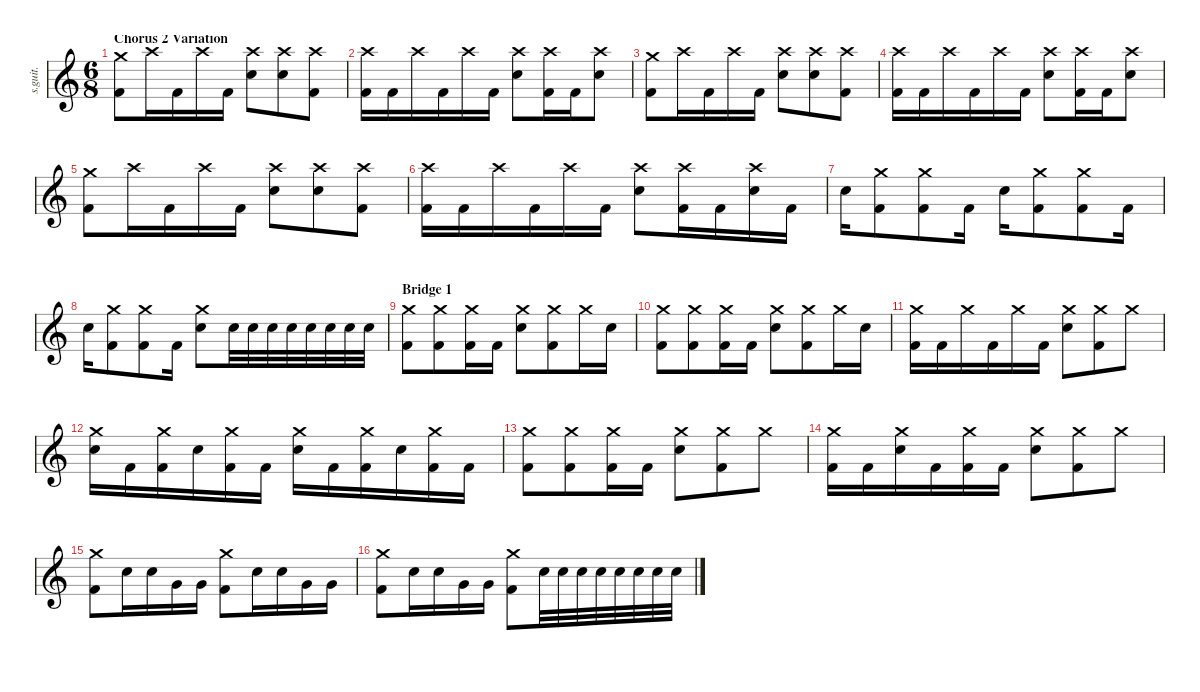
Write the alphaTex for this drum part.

\defaultSystemsLayout 4
\hideDynamics
\bracketExtendMode nobrackets
\track ("Shannon (Drums)" "s.guit.") {instrument percussion}
\staff {score}
\articulation defaults
\ts (6 8)
\section ("" "Chorus 2 Variation")
\tempo (94 hide)
\clef g2
\ks c
("Crash medium (hit)" "Kick (hit) 2").8{lyrics (0 "") lyrics (1 "") lyrics (2 "") lyrics (3 "") lyrics (4 "") dy f} "Crash high (hit)".16{lyrics (0 "") lyrics (1 "") lyrics (2 "") lyrics (3 "") lyrics (4 "")} "Kick (hit) 2".16{lyrics (0 "") lyrics (1 "") lyrics (2 "") lyrics (3 "") lyrics (4 "")} "Crash high (hit)".16{lyrics (0 "") lyrics (1 "") lyrics (2 "") lyrics (3 "") lyrics (4 "")} "Kick (hit) 2".16{lyrics (0 "") lyrics (1 "") lyrics (2 "") lyrics (3 "") lyrics (4 "")} ("Crash high (hit)" "Electric Snare (hit)").8{lyrics (0 "") lyrics (1 "") lyrics (2 "") lyrics (3 "") lyrics (4 "")} ("Crash high (hit)" "Electric Snare (hit)").8{lyrics (0 "") lyrics (1 "") lyrics (2 "") lyrics (3 "") lyrics (4 "")} ("Crash high (hit)" "Kick (hit) 2").8{lyrics (0 "") lyrics (1 "") lyrics (2 "") lyrics (3 "") lyrics (4 "")} |
("Crash high (hit)" "Kick (hit) 2").16{lyrics (0 "") lyrics (1 "") lyrics (2 "") lyrics (3 "") lyrics (4 "")} "Kick (hit) 2".16{lyrics (0 "") lyrics (1 "") lyrics (2 "") lyrics (3 "") lyrics (4 "")} "Crash high (hit)".16{lyrics (0 "") lyrics (1 "") lyrics (2 "") lyrics (3 "") lyrics (4 "")} "Kick (hit) 2".16{lyrics (0 "") lyrics (1 "") lyrics (2 "") lyrics (3 "") lyrics (4 "")} "Crash high (hit)".16{lyrics (0 "") lyrics (1 "") lyrics (2 "") lyrics (3 "") lyrics (4 "")} "Kick (hit) 2".16{lyrics (0 "") lyrics (1 "") lyrics (2 "") lyrics (3 "") lyrics (4 "")} ("Crash high (hit)" "Electric Snare (hit)").8{lyrics (0 "") lyrics (1 "") lyrics (2 "") lyrics (3 "") lyrics (4 "")} ("Crash high (hit)" "Kick (hit) 2").16{lyrics (0 "") lyrics (1 "") lyrics (2 "") lyrics (3 "") lyrics (4 "")} "Kick (hit) 2".16{lyrics (0 "") lyrics (1 "") lyrics (2 "") lyrics (3 "") lyrics (4 "")} ("Crash high (hit)" "Electric Snare (hit)").8{lyrics (0 "") lyrics (1 "") lyrics (2 "") lyrics (3 "") lyrics (4 "")} |
("Crash medium (hit)" "Kick (hit) 2").8{lyrics (0 "") lyrics (1 "") lyrics (2 "") lyrics (3 "") lyrics (4 "")} "Crash high (hit)".16{lyrics (0 "") lyrics (1 "") lyrics (2 "") lyrics (3 "") lyrics (4 "")} "Kick (hit) 2".16{lyrics (0 "") lyrics (1 "") lyrics (2 "") lyrics (3 "") lyrics (4 "")} "Crash high (hit)".16{lyrics (0 "") lyrics (1 "") lyrics (2 "") lyrics (3 "") lyrics (4 "")} "Kick (hit) 2".16{lyrics (0 "") lyrics (1 "") lyrics (2 "") lyrics (3 "") lyrics (4 "")} ("Crash high (hit)" "Electric Snare (hit)").8{lyrics (0 "") lyrics (1 "") lyrics (2 "") lyrics (3 "") lyrics (4 "")} ("Crash high (hit)" "Electric Snare (hit)").8{lyrics (0 "") lyrics (1 "") lyrics (2 "") lyrics (3 "") lyrics (4 "")} ("Crash high (hit)" "Kick (hit) 2").8{lyrics (0 "") lyrics (1 "") lyrics (2 "") lyrics (3 "") lyrics (4 "")} |
("Crash high (hit)" "Kick (hit) 2").16{lyrics (0 "") lyrics (1 "") lyrics (2 "") lyrics (3 "") lyrics (4 "")} "Kick (hit) 2".16{lyrics (0 "") lyrics (1 "") lyrics (2 "") lyrics (3 "") lyrics (4 "")} "Crash high (hit)".16{lyrics (0 "") lyrics (1 "") lyrics (2 "") lyrics (3 "") lyrics (4 "")} "Kick (hit) 2".16{lyrics (0 "") lyrics (1 "") lyrics (2 "") lyrics (3 "") lyrics (4 "")} "Crash high (hit)".16{lyrics (0 "") lyrics (1 "") lyrics (2 "") lyrics (3 "") lyrics (4 "")} "Kick (hit) 2".16{lyrics (0 "") lyrics (1 "") lyrics (2 "") lyrics (3 "") lyrics (4 "")} ("Crash high (hit)" "Electric Snare (hit)").8{lyrics (0 "") lyrics (1 "") lyrics (2 "") lyrics (3 "") lyrics (4 "")} ("Crash high (hit)" "Kick (hit) 2").16{lyrics (0 "") lyrics (1 "") lyrics (2 "") lyrics (3 "") lyrics (4 "")} "Kick (hit) 2".16{lyrics (0 "") lyrics (1 "") lyrics (2 "") lyrics (3 "") lyrics (4 "")} ("Crash high (hit)" "Electric Snare (hit)").8{lyrics (0 "") lyrics (1 "") lyrics (2 "") lyrics (3 "") lyrics (4 "")} |
("Crash medium (hit)" "Kick (hit) 2").8{lyrics (0 "") lyrics (1 "") lyrics (2 "") lyrics (3 "") lyrics (4 "")} "Crash high (hit)".16{lyrics (0 "") lyrics (1 "") lyrics (2 "") lyrics (3 "") lyrics (4 "")} "Kick (hit) 2".16{lyrics (0 "") lyrics (1 "") lyrics (2 "") lyrics (3 "") lyrics (4 "")} "Crash high (hit)".16{lyrics (0 "") lyrics (1 "") lyrics (2 "") lyrics (3 "") lyrics (4 "")} "Kick (hit) 2".16{lyrics (0 "") lyrics (1 "") lyrics (2 "") lyrics (3 "") lyrics (4 "")} ("Crash high (hit)" "Electric Snare (hit)").8{lyrics (0 "") lyrics (1 "") lyrics (2 "") lyrics (3 "") lyrics (4 "")} ("Crash high (hit)" "Electric Snare (hit)").8{lyrics (0 "") lyrics (1 "") lyrics (2 "") lyrics (3 "") lyrics (4 "")} ("Crash high (hit)" "Kick (hit) 2").8{lyrics (0 "") lyrics (1 "") lyrics (2 "") lyrics (3 "") lyrics (4 "")} |
("Crash high (hit)" "Kick (hit) 2").16{lyrics (0 "") lyrics (1 "") lyrics (2 "") lyrics (3 "") lyrics (4 "")} "Kick (hit) 2".16{lyrics (0 "") lyrics (1 "") lyrics (2 "") lyrics (3 "") lyrics (4 "")} "Crash high (hit)".16{lyrics (0 "") lyrics (1 "") lyrics (2 "") lyrics (3 "") lyrics (4 "")} "Kick (hit) 2".16{lyrics (0 "") lyrics (1 "") lyrics (2 "") lyrics (3 "") lyrics (4 "")} "Crash high (hit)".16{lyrics (0 "") lyrics (1 "") lyrics (2 "") lyrics (3 "") lyrics (4 "")} "Kick (hit) 2".16{lyrics (0 "") lyrics (1 "") lyrics (2 "") lyrics (3 "") lyrics (4 "")} ("Crash high (hit)" "Electric Snare (hit)").8{lyrics (0 "") lyrics (1 "") lyrics (2 "") lyrics (3 "") lyrics (4 "")} ("Crash high (hit)" "Kick (hit) 2").16{lyrics (0 "") lyrics (1 "") lyrics (2 "") lyrics (3 "") lyrics (4 "")} "Kick (hit) 2".16{lyrics (0 "") lyrics (1 "") lyrics (2 "") lyrics (3 "") lyrics (4 "")} ("Crash high (hit)" "Electric Snare (hit)").16{lyrics (0 "") lyrics (1 "") lyrics (2 "") lyrics (3 "") lyrics (4 "")} "Kick (hit) 2".16{lyrics (0 "") lyrics (1 "") lyrics (2 "") lyrics (3 "") lyrics (4 "")} |
"Electric Snare (hit)".16{lyrics (0 "") lyrics (1 "") lyrics (2 "") lyrics (3 "") lyrics (4 "")} ("Crash medium (hit)" "Kick (hit) 2").8{lyrics (0 "") lyrics (1 "") lyrics (2 "") lyrics (3 "") lyrics (4 "")} ("Crash medium (hit)" "Kick (hit) 2").8{lyrics (0 "") lyrics (1 "") lyrics (2 "") lyrics (3 "") lyrics (4 "")} "Kick (hit) 2".16{lyrics (0 "") lyrics (1 "") lyrics (2 "") lyrics (3 "") lyrics (4 "")} "Electric Snare (hit)".16{lyrics (0 "") lyrics (1 "") lyrics (2 "") lyrics (3 "") lyrics (4 "")} ("Crash medium (hit)" "Kick (hit) 2").8{lyrics (0 "") lyrics (1 "") lyrics (2 "") lyrics (3 "") lyrics (4 "")} ("Crash medium (hit)" "Kick (hit) 2").8{lyrics (0 "") lyrics (1 "") lyrics (2 "") lyrics (3 "") lyrics (4 "")} "Kick (hit) 2".16{lyrics (0 "") lyrics (1 "") lyrics (2 "") lyrics (3 "") lyrics (4 "")} |
"Electric Snare (hit)".16{lyrics (0 "") lyrics (1 "") lyrics (2 "") lyrics (3 "") lyrics (4 "")} ("Crash medium (hit)" "Kick (hit) 2").8{lyrics (0 "") lyrics (1 "") lyrics (2 "") lyrics (3 "") lyrics (4 "")} ("Crash medium (hit)" "Kick (hit) 2").8{lyrics (0 "") lyrics (1 "") lyrics (2 "") lyrics (3 "") lyrics (4 "")} "Kick (hit) 2".16{lyrics (0 "") lyrics (1 "") lyrics (2 "") lyrics (3 "") lyrics (4 "")} ("Crash medium (hit)" "Electric Snare (hit)").8{lyrics (0 "") lyrics (1 "") lyrics (2 "") lyrics (3 "") lyrics (4 "")} "Electric Snare (hit)".32{lyrics (0 "") lyrics (1 "") lyrics (2 "") lyrics (3 "") lyrics (4 "")} "Electric Snare (hit)".32{lyrics (0 "") lyrics (1 "") lyrics (2 "") lyrics (3 "") lyrics (4 "")} "Electric Snare (hit)".32{lyrics (0 "") lyrics (1 "") lyrics (2 "") lyrics (3 "") lyrics (4 "")} "Electric Snare (hit)".32{lyrics (0 "") lyrics (1 "") lyrics (2 "") lyrics (3 "") lyrics (4 "")} "Electric Snare (hit)".32{lyrics (0 "") lyrics (1 "") lyrics (2 "") lyrics (3 "") lyrics (4 "")} "Electric Snare (hit)".32{lyrics (0 "") lyrics (1 "") lyrics (2 "") lyrics (3 "") lyrics (4 "")} "Electric Snare (hit)".32{lyrics (0 "") lyrics (1 "") lyrics (2 "") lyrics (3 "") lyrics (4 "")} "Electric Snare (hit)".32{lyrics (0 "") lyrics (1 "") lyrics (2 "") lyrics (3 "") lyrics (4 "")} |
\section ("" "Bridge 1")
("Crash medium (hit)" "Kick (hit) 2").8{lyrics (0 "") lyrics (1 "") lyrics (2 "") lyrics (3 "") lyrics (4 "")} ("Crash medium (hit)" "Kick (hit) 2").8{lyrics (0 "") lyrics (1 "") lyrics (2 "") lyrics (3 "") lyrics (4 "")} ("Crash medium (hit)" "Kick (hit) 2").16{lyrics (0 "") lyrics (1 "") lyrics (2 "") lyrics (3 "") lyrics (4 "")} "Kick (hit) 2".16{lyrics (0 "") lyrics (1 "") lyrics (2 "") lyrics (3 "") lyrics (4 "")} ("Crash medium (hit)" "Electric Snare (hit)").8{lyrics (0 "") lyrics (1 "") lyrics (2 "") lyrics (3 "") lyrics (4 "")} ("Crash medium (hit)" "Kick (hit) 2").8{lyrics (0 "") lyrics (1 "") lyrics (2 "") lyrics (3 "") lyrics (4 "")} "Crash medium (hit)".16{lyrics (0 "") lyrics (1 "") lyrics (2 "") lyrics (3 "") lyrics (4 "")} "Electric Snare (hit)".16{lyrics (0 "") lyrics (1 "") lyrics (2 "") lyrics (3 "") lyrics (4 "")} |
("Crash medium (hit)" "Kick (hit) 2").8{lyrics (0 "") lyrics (1 "") lyrics (2 "") lyrics (3 "") lyrics (4 "")} ("Crash medium (hit)" "Kick (hit) 2").8{lyrics (0 "") lyrics (1 "") lyrics (2 "") lyrics (3 "") lyrics (4 "")} ("Crash medium (hit)" "Kick (hit) 2").16{lyrics (0 "") lyrics (1 "") lyrics (2 "") lyrics (3 "") lyrics (4 "")} "Kick (hit) 2".16{lyrics (0 "") lyrics (1 "") lyrics (2 "") lyrics (3 "") lyrics (4 "")} ("Crash medium (hit)" "Electric Snare (hit)").8{lyrics (0 "") lyrics (1 "") lyrics (2 "") lyrics (3 "") lyrics (4 "")} ("Crash medium (hit)" "Kick (hit) 2").8{lyrics (0 "") lyrics (1 "") lyrics (2 "") lyrics (3 "") lyrics (4 "")} "Crash medium (hit)".16{lyrics (0 "") lyrics (1 "") lyrics (2 "") lyrics (3 "") lyrics (4 "")} "Electric Snare (hit)".16{lyrics (0 "") lyrics (1 "") lyrics (2 "") lyrics (3 "") lyrics (4 "")} |
("Crash medium (hit)" "Kick (hit) 2").16{lyrics (0 "") lyrics (1 "") lyrics (2 "") lyrics (3 "") lyrics (4 "")} "Kick (hit) 2".16{lyrics (0 "") lyrics (1 "") lyrics (2 "") lyrics (3 "") lyrics (4 "")} "Crash medium (hit)".16{lyrics (0 "") lyrics (1 "") lyrics (2 "") lyrics (3 "") lyrics (4 "")} "Kick (hit) 2".16{lyrics (0 "") lyrics (1 "") lyrics (2 "") lyrics (3 "") lyrics (4 "")} "Crash medium (hit)".16{lyrics (0 "") lyrics (1 "") lyrics (2 "") lyrics (3 "") lyrics (4 "")} "Kick (hit) 2".16{lyrics (0 "") lyrics (1 "") lyrics (2 "") lyrics (3 "") lyrics (4 "")} ("Crash medium (hit)" "Electric Snare (hit)").8{lyrics (0 "") lyrics (1 "") lyrics (2 "") lyrics (3 "") lyrics (4 "")} ("Crash medium (hit)" "Kick (hit) 2").8{lyrics (0 "") lyrics (1 "") lyrics (2 "") lyrics (3 "") lyrics (4 "")} "Crash medium (hit)".8{lyrics (0 "") lyrics (1 "") lyrics (2 "") lyrics (3 "") lyrics (4 "")} |
("Crash medium (hit)" "Electric Snare (hit)").16{lyrics (0 "") lyrics (1 "") lyrics (2 "") lyrics (3 "") lyrics (4 "")} "Kick (hit) 2".16{lyrics (0 "") lyrics (1 "") lyrics (2 "") lyrics (3 "") lyrics (4 "")} ("Crash medium (hit)" "Kick (hit) 2").16{lyrics (0 "") lyrics (1 "") lyrics (2 "") lyrics (3 "") lyrics (4 "")} "Electric Snare (hit)".16{lyrics (0 "") lyrics (1 "") lyrics (2 "") lyrics (3 "") lyrics (4 "")} ("Crash medium (hit)" "Kick (hit) 2").16{lyrics (0 "") lyrics (1 "") lyrics (2 "") lyrics (3 "") lyrics (4 "")} "Kick (hit) 2".16{lyrics (0 "") lyrics (1 "") lyrics (2 "") lyrics (3 "") lyrics (4 "")} ("Crash medium (hit)" "Electric Snare (hit)").16{lyrics (0 "") lyrics (1 "") lyrics (2 "") lyrics (3 "") lyrics (4 "")} "Kick (hit) 2".16{lyrics (0 "") lyrics (1 "") lyrics (2 "") lyrics (3 "") lyrics (4 "")} ("Crash medium (hit)" "Kick (hit) 2").16{lyrics (0 "") lyrics (1 "") lyrics (2 "") lyrics (3 "") lyrics (4 "")} "Electric Snare (hit)".16{lyrics (0 "") lyrics (1 "") lyrics (2 "") lyrics (3 "") lyrics (4 "")} ("Crash medium (hit)" "Kick (hit) 2").16{lyrics (0 "") lyrics (1 "") lyrics (2 "") lyrics (3 "") lyrics (4 "")} "Kick (hit) 2".16{lyrics (0 "") lyrics (1 "") lyrics (2 "") lyrics (3 "") lyrics (4 "")} |
("Crash medium (hit)" "Kick (hit) 2").8{lyrics (0 "") lyrics (1 "") lyrics (2 "") lyrics (3 "") lyrics (4 "")} ("Crash medium (hit)" "Kick (hit) 2").8{lyrics (0 "") lyrics (1 "") lyrics (2 "") lyrics (3 "") lyrics (4 "")} ("Crash medium (hit)" "Kick (hit) 2").16{lyrics (0 "") lyrics (1 "") lyrics (2 "") lyrics (3 "") lyrics (4 "")} "Kick (hit) 2".16{lyrics (0 "") lyrics (1 "") lyrics (2 "") lyrics (3 "") lyrics (4 "")} ("Crash medium (hit)" "Electric Snare (hit)").8{lyrics (0 "") lyrics (1 "") lyrics (2 "") lyrics (3 "") lyrics (4 "")} ("Crash medium (hit)" "Kick (hit) 2").8{lyrics (0 "") lyrics (1 "") lyrics (2 "") lyrics (3 "") lyrics (4 "")} "Crash medium (hit)".8{lyrics (0 "") lyrics (1 "") lyrics (2 "") lyrics (3 "") lyrics (4 "")} |
("Crash medium (hit)" "Kick (hit) 2").16{lyrics (0 "") lyrics (1 "") lyrics (2 "") lyrics (3 "") lyrics (4 "")} "Kick (hit) 2".16{lyrics (0 "") lyrics (1 "") lyrics (2 "") lyrics (3 "") lyrics (4 "")} ("Crash medium (hit)" "Electric Snare (hit)").16{lyrics (0 "") lyrics (1 "") lyrics (2 "") lyrics (3 "") lyrics (4 "")} "Kick (hit) 2".16{lyrics (0 "") lyrics (1 "") lyrics (2 "") lyrics (3 "") lyrics (4 "")} ("Crash medium (hit)" "Kick (hit) 2").16{lyrics (0 "") lyrics (1 "") lyrics (2 "") lyrics (3 "") lyrics (4 "")} "Kick (hit) 2".16{lyrics (0 "") lyrics (1 "") lyrics (2 "") lyrics (3 "") lyrics (4 "")} ("Crash medium (hit)" "Electric Snare (hit)").8{lyrics (0 "") lyrics (1 "") lyrics (2 "") lyrics (3 "") lyrics (4 "")} ("Crash medium (hit)" "Kick (hit) 2").8{lyrics (0 "") lyrics (1 "") lyrics (2 "") lyrics (3 "") lyrics (4 "")} "Crash medium (hit)".8{lyrics (0 "") lyrics (1 "") lyrics (2 "") lyrics (3 "") lyrics (4 "")} |
("Crash medium (hit)" "Kick (hit) 2").8{lyrics (0 "") lyrics (1 "") lyrics (2 "") lyrics (3 "") lyrics (4 "")} "Electric Snare (hit)".16{lyrics (0 "") lyrics (1 "") lyrics (2 "") lyrics (3 "") lyrics (4 "")} "Electric Snare (hit)".16{lyrics (0 "") lyrics (1 "") lyrics (2 "") lyrics (3 "") lyrics (4 "")} "Very Low Tom (hit)".16{lyrics (0 "") lyrics (1 "") lyrics (2 "") lyrics (3 "") lyrics (4 "")} "Very Low Tom (hit)".16{lyrics (0 "") lyrics (1 "") lyrics (2 "") lyrics (3 "") lyrics (4 "")} ("Crash medium (hit)" "Kick (hit) 2").8{lyrics (0 "") lyrics (1 "") lyrics (2 "") lyrics (3 "") lyrics (4 "")} "Electric Snare (hit)".16{lyrics (0 "") lyrics (1 "") lyrics (2 "") lyrics (3 "") lyrics (4 "")} "Electric Snare (hit)".16{lyrics (0 "") lyrics (1 "") lyrics (2 "") lyrics (3 "") lyrics (4 "")} "Very Low Tom (hit)".16{lyrics (0 "") lyrics (1 "") lyrics (2 "") lyrics (3 "") lyrics (4 "")} "Very Low Tom (hit)".16{lyrics (0 "") lyrics (1 "") lyrics (2 "") lyrics (3 "") lyrics (4 "")} |
("Crash medium (hit)" "Kick (hit) 2").8{lyrics (0 "") lyrics (1 "") lyrics (2 "") lyrics (3 "") lyrics (4 "")} "Electric Snare (hit)".16{lyrics (0 "") lyrics (1 "") lyrics (2 "") lyrics (3 "") lyrics (4 "")} "Electric Snare (hit)".16{lyrics (0 "") lyrics (1 "") lyrics (2 "") lyrics (3 "") lyrics (4 "")} "Very Low Tom (hit)".16{lyrics (0 "") lyrics (1 "") lyrics (2 "") lyrics (3 "") lyrics (4 "")} "Very Low Tom (hit)".16{lyrics (0 "") lyrics (1 "") lyrics (2 "") lyrics (3 "") lyrics (4 "")} ("Crash medium (hit)" "Kick (hit) 2").8{lyrics (0 "") lyrics (1 "") lyrics (2 "") lyrics (3 "") lyrics (4 "")} "Electric Snare (hit)".32{lyrics (0 "") lyrics (1 "") lyrics (2 "") lyrics (3 "") lyrics (4 "")} "Electric Snare (hit)".32{lyrics (0 "") lyrics (1 "") lyrics (2 "") lyrics (3 "") lyrics (4 "")} "Electric Snare (hit)".32{lyrics (0 "") lyrics (1 "") lyrics (2 "") lyrics (3 "") lyrics (4 "")} "Electric Snare (hit)".32{lyrics (0 "") lyrics (1 "") lyrics (2 "") lyrics (3 "") lyrics (4 "")} "Electric Snare (hit)".32{lyrics (0 "") lyrics (1 "") lyrics (2 "") lyrics (3 "") lyrics (4 "")} "Electric Snare (hit)".32{lyrics (0 "") lyrics (1 "") lyrics (2 "") lyrics (3 "") lyrics (4 "")} "Electric Snare (hit)".32{lyrics (0 "") lyrics (1 "") lyrics (2 "") lyrics (3 "") lyrics (4 "")} "Electric Snare (hit)".32{lyrics (0 "") lyrics (1 "") lyrics (2 "") lyrics (3 "") lyrics (4 "")}
